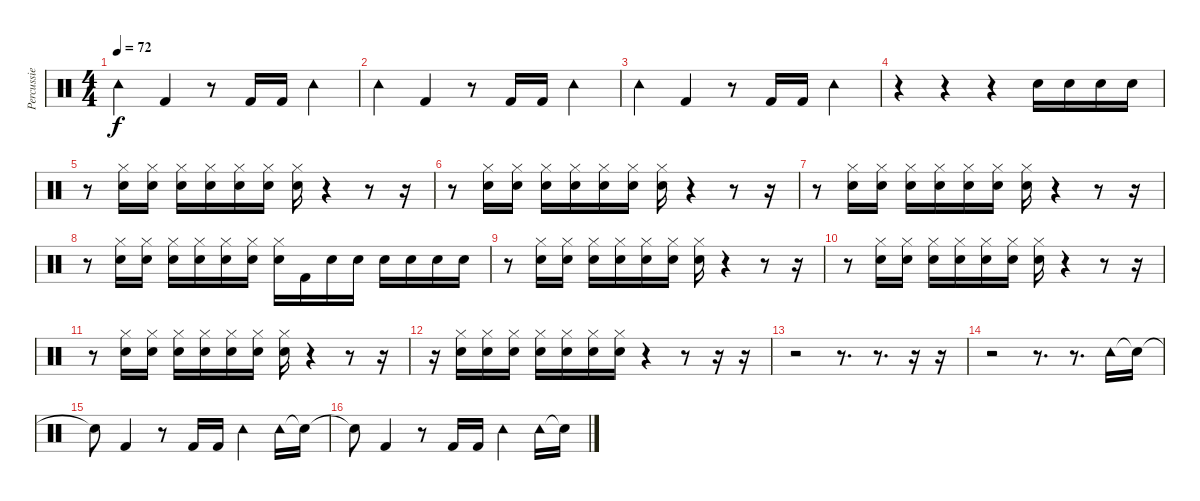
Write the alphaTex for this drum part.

\track ("Percussie" "Percussie") {instrument percussion}
\staff {score}
\articulation defaults
\ts (4 4)
\tempo 72
\clef neutral
\ks c "Tambourine (hit)".4{dy f} "Kick (hit) 2".4
r.8 "Kick (hit) 2".16 "Kick (hit) 2".16 "Tambourine (hit)".4 |
"Tambourine (hit)".4 "Kick (hit) 2".4 r.8 "Kick (hit) 2".16 "Kick (hit) 2".16 "Tambourine (hit)".4 |
"Tambourine (hit)".4 "Kick (hit) 2".4 r.8 "Kick (hit) 2".16 "Kick (hit) 2".16 "Tambourine (hit)".4 |
r.4 r.4 r.4 "Electric Snare (hit)".16 "Electric Snare (hit)".16 "Electric Snare (hit)".16 "Electric Snare (hit)".16 |
r.8 ("Hi-Hat (closed)" "Electric Snare (hit)").16 ("Hi-Hat (closed)" "Electric Snare (hit)").16 ("Hi-Hat (closed)" "Electric Snare (hit)").16 ("Hi-Hat (closed)" "Electric Snare (hit)").16 ("Hi-Hat (closed)" "Electric Snare (hit)").16 ("Hi-Hat (closed)" "Electric Snare (hit)").16 ("Hi-Hat (closed)" "Electric Snare (hit)").16 r.4 r.8 r.16 |
r.8 ("Hi-Hat (closed)" "Electric Snare (hit)").16 ("Hi-Hat (closed)" "Electric Snare (hit)").16 ("Hi-Hat (closed)" "Electric Snare (hit)").16 ("Hi-Hat (closed)" "Electric Snare (hit)").16 ("Hi-Hat (closed)" "Electric Snare (hit)").16 ("Hi-Hat (closed)" "Electric Snare (hit)").16 ("Hi-Hat (closed)" "Electric Snare (hit)").16 r.4 r.8 r.16 |
r.8 ("Hi-Hat (closed)" "Electric Snare (hit)").16 ("Hi-Hat (closed)" "Electric Snare (hit)").16 ("Hi-Hat (closed)" "Electric Snare (hit)").16 ("Hi-Hat (closed)" "Electric Snare (hit)").16 ("Hi-Hat (closed)" "Electric Snare (hit)").16 ("Hi-Hat (closed)" "Electric Snare (hit)").16 ("Hi-Hat (closed)" "Electric Snare (hit)").16 r.4 r.8 r.16 |
r.8 ("Hi-Hat (closed)" "Electric Snare (hit)").16 ("Hi-Hat (closed)" "Electric Snare (hit)").16 ("Hi-Hat (closed)" "Electric Snare (hit)").16 ("Hi-Hat (closed)" "Electric Snare (hit)").16 ("Hi-Hat (closed)" "Electric Snare (hit)").16 ("Hi-Hat (closed)" "Electric Snare (hit)").16 ("Hi-Hat (closed)" "Electric Snare (hit)").16 "Kick (hit) 2".16 "Electric Snare (hit)".16 "Electric Snare (hit)".16 "Electric Snare (hit)".16 "Electric Snare (hit)".16 "Electric Snare (hit)".16 "Electric Snare (hit)".16 |
r.8 ("Hi-Hat (closed)" "Electric Snare (hit)").16 ("Hi-Hat (closed)" "Electric Snare (hit)").16 ("Hi-Hat (closed)" "Electric Snare (hit)").16 ("Hi-Hat (closed)" "Electric Snare (hit)").16 ("Hi-Hat (closed)" "Electric Snare (hit)").16 ("Hi-Hat (closed)" "Electric Snare (hit)").16 ("Hi-Hat (closed)" "Electric Snare (hit)").16 r.4 r.8 r.16 |
r.8 ("Hi-Hat (closed)" "Electric Snare (hit)").16 ("Hi-Hat (closed)" "Electric Snare (hit)").16 ("Hi-Hat (closed)" "Electric Snare (hit)").16 ("Hi-Hat (closed)" "Electric Snare (hit)").16 ("Hi-Hat (closed)" "Electric Snare (hit)").16 ("Hi-Hat (closed)" "Electric Snare (hit)").16 ("Hi-Hat (closed)" "Electric Snare (hit)").16 r.4 r.8 r.16 |
r.8 ("Hi-Hat (closed)" "Electric Snare (hit)").16 ("Hi-Hat (closed)" "Electric Snare (hit)").16 ("Hi-Hat (closed)" "Electric Snare (hit)").16 ("Hi-Hat (closed)" "Electric Snare (hit)").16 ("Hi-Hat (closed)" "Electric Snare (hit)").16 ("Hi-Hat (closed)" "Electric Snare (hit)").16 ("Hi-Hat (closed)" "Electric Snare (hit)").16 r.4 r.8 r.16 |
r.16 ("Hi-Hat (closed)" "Electric Snare (hit)").16 ("Hi-Hat (closed)" "Electric Snare (hit)").16 ("Hi-Hat (closed)" "Electric Snare (hit)").16 ("Hi-Hat (closed)" "Electric Snare (hit)").16 ("Hi-Hat (closed)" "Electric Snare (hit)").16 ("Hi-Hat (closed)" "Electric Snare (hit)").16 ("Hi-Hat (closed)" "Electric Snare (hit)").16 r.4 r.8 r.16 r.16 |
r.2 r.8{d} r.8{d} r.16 r.16 |
r.2 r.8{d} r.8{d} "Tambourine (hit)".16 "Snare (hit)"{t}.16 |
"Snare (hit)"{t}.8 "Kick (hit) 2".4 r.8 "Kick (hit) 2".16 "Kick (hit) 2".16 "Tambourine (hit)".4 "Tambourine (hit)".16 "Snare (hit)"{t}.16 |
"Snare (hit)"{t}.8 "Kick (hit) 2".4 r.8 "Kick (hit) 2".16 "Kick (hit) 2".16 "Tambourine (hit)".4 "Tambourine (hit)".16 "Snare (hit)"{t}.16
